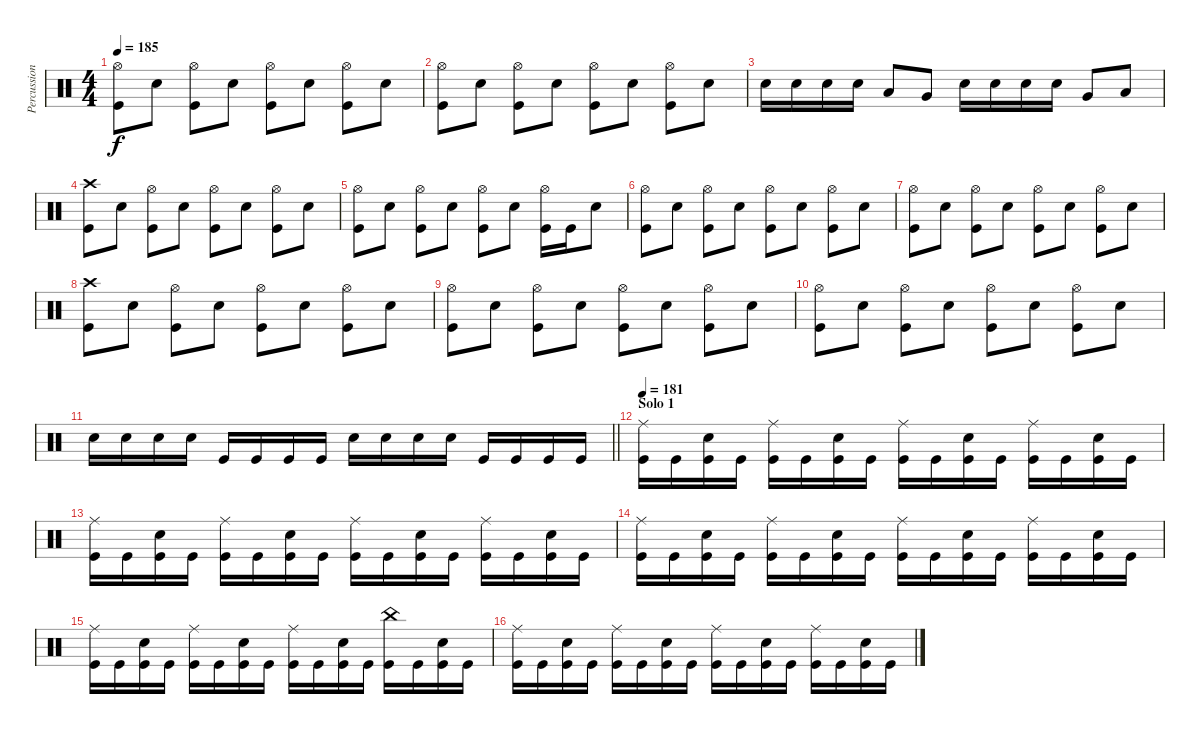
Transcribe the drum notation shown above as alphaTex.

\track ("Percussion" "Percussion") {instrument percussion}
\staff {score}
\articulation defaults
\ts (4 4)
\tempo 185
\clef neutral
\ks c
("Hi-Hat (open)" "Kick (hit)").8{dy f} "Snare (hit) 2".8 ("Hi-Hat (open)" "Kick (hit)").8 "Snare (hit) 2".8 ("Hi-Hat (open)" "Kick (hit)").8 "Snare (hit) 2".8 ("Hi-Hat (open)" "Kick (hit)").8 "Snare (hit) 2".8 |
("Hi-Hat (open)" "Kick (hit)").8 "Snare (hit) 2".8 ("Hi-Hat (open)" "Kick (hit)").8 "Snare (hit) 2".8 ("Hi-Hat (open)" "Kick (hit)").8 "Snare (hit) 2".8 ("Hi-Hat (open)" "Kick (hit)").8 "Snare (hit) 2".8 |
"Snare (hit) 2".16 "Snare (hit) 2".16 "Snare (hit) 2".16 "Snare (hit) 2".16 "Low Tom (hit)".8 "Very Low Tom (hit)".8 "Snare (hit) 2".16 "Snare (hit) 2".16 "Snare (hit) 2".16 "Snare (hit) 2".16 "Very Low Tom (hit)".8 "Low Floor Tom (hit)".8 |
("Crash high (hit)" "Kick (hit)").8 "Snare (hit) 2".8 ("Hi-Hat (open)" "Kick (hit)").8 "Snare (hit) 2".8 ("Hi-Hat (open)" "Kick (hit)").8 "Snare (hit) 2".8 ("Hi-Hat (open)" "Kick (hit)").8 "Snare (hit) 2".8 |
("Kick (hit)" "Hi-Hat (open)").8 "Snare (hit) 2".8 ("Kick (hit)" "Hi-Hat (open)").8 "Snare (hit) 2".8 ("Hi-Hat (open)" "Kick (hit)").8 "Snare (hit) 2".8 ("Hi-Hat (open)" "Kick (hit)").16 "Kick (hit)".16 "Snare (hit) 2".8 |
("Hi-Hat (open)" "Kick (hit)").8 "Snare (hit) 2".8 ("Hi-Hat (open)" "Kick (hit)").8 "Snare (hit) 2".8 ("Hi-Hat (open)" "Kick (hit)").8 "Snare (hit) 2".8 ("Hi-Hat (open)" "Kick (hit)").8 "Snare (hit) 2".8 |
("Hi-Hat (open)" "Kick (hit)").8 "Snare (hit) 2".8 ("Hi-Hat (open)" "Kick (hit)").8 "Snare (hit) 2".8 ("Hi-Hat (open)" "Kick (hit)").8 "Snare (hit) 2".8 ("Hi-Hat (open)" "Kick (hit)").8 "Snare (hit) 2".8 |
("Crash high (hit)" "Kick (hit)").8 "Snare (hit) 2".8 ("Hi-Hat (open)" "Kick (hit)").8 "Snare (hit) 2".8 ("Hi-Hat (open)" "Kick (hit)").8 "Snare (hit) 2".8 ("Hi-Hat (open)" "Kick (hit)").8 "Snare (hit) 2".8 |
("Hi-Hat (open)" "Kick (hit)").8 "Snare (hit) 2".8 ("Hi-Hat (open)" "Kick (hit)").8 "Snare (hit) 2".8 ("Hi-Hat (open)" "Kick (hit)").8 "Snare (hit) 2".8 ("Hi-Hat (open)" "Kick (hit)").8 "Snare (hit) 2".8 |
("Hi-Hat (open)" "Kick (hit)").8 "Snare (hit) 2".8 ("Hi-Hat (open)" "Kick (hit)").8 "Snare (hit) 2".8 ("Hi-Hat (open)" "Kick (hit)").8 "Snare (hit) 2".8 ("Hi-Hat (open)" "Kick (hit)").8 "Snare (hit) 2".8 |
\barLineRight lightlight "Snare (hit) 2".16 "Snare (hit) 2".16 "Snare (hit) 2".16 "Snare (hit) 2".16 "Kick (hit)".16 "Kick (hit)".16 "Kick (hit)".16 "Kick (hit)".16 "Snare (hit) 2".16 "Snare (hit) 2".16 "Snare (hit) 2".16 "Snare (hit) 2".16 "Kick (hit)".16 "Kick (hit)".16 "Kick (hit)".16 "Kick (hit)".16
|
\section ("" "Solo 1")
\tempo 181
("Ride (middle)" "Kick (hit)").16 "Kick (hit)".16 ("Snare (hit) 2" "Kick (hit)").16 "Kick (hit)".16 ("Ride (middle)" "Kick (hit)").16 "Kick (hit)".16 ("Snare (hit) 2" "Kick (hit)").16 "Kick (hit)".16 ("Ride (middle)" "Kick (hit)").16 "Kick (hit)".16 ("Snare (hit) 2" "Kick (hit)").16 "Kick (hit)".16 ("Ride (middle)" "Kick (hit)").16 "Kick (hit)".16 ("Snare (hit) 2" "Kick (hit)").16 "Kick (hit)".16 |
("Ride (middle)" "Kick (hit)").16 "Kick (hit)".16 ("Snare (hit) 2" "Kick (hit)").16 "Kick (hit)".16 ("Ride (middle)" "Kick (hit)").16 "Kick (hit)".16 ("Snare (hit) 2" "Kick (hit)").16 "Kick (hit)".16 ("Ride (middle)" "Kick (hit)").16 "Kick (hit)".16 ("Snare (hit) 2" "Kick (hit)").16 "Kick (hit)".16 ("Ride (middle)" "Kick (hit)").16 "Kick (hit)".16 ("Snare (hit) 2" "Kick (hit)").16 "Kick (hit)".16 |
("Ride (middle)" "Kick (hit)").16 "Kick (hit)".16 ("Snare (hit) 2" "Kick (hit)").16 "Kick (hit)".16 ("Ride (middle)" "Kick (hit)").16 "Kick (hit)".16 ("Snare (hit) 2" "Kick (hit)").16 "Kick (hit)".16 ("Ride (middle)" "Kick (hit)").16 "Kick (hit)".16 ("Snare (hit) 2" "Kick (hit)").16 "Kick (hit)".16 ("Ride (middle)" "Kick (hit)").16 "Kick (hit)".16 ("Snare (hit) 2" "Kick (hit)").16 "Kick (hit)".16 |
("Ride (middle)" "Kick (hit)").16 "Kick (hit)".16 ("Snare (hit) 2" "Kick (hit)").16 "Kick (hit)".16 ("Ride (middle)" "Kick (hit)").16 "Kick (hit)".16 ("Snare (hit) 2" "Kick (hit)").16 "Kick (hit)".16 ("Ride (middle)" "Kick (hit)").16 "Kick (hit)".16 ("Snare (hit) 2" "Kick (hit)").16 "Kick (hit)".16 ("China (hit)" "Kick (hit)").16 "Kick (hit)".16 ("Snare (hit) 2" "Kick (hit)").16 "Kick (hit)".16 |
("Ride (middle)" "Kick (hit)").16 "Kick (hit)".16 ("Snare (hit) 2" "Kick (hit)").16 "Kick (hit)".16 ("Ride (middle)" "Kick (hit)").16 "Kick (hit)".16 ("Snare (hit) 2" "Kick (hit)").16 "Kick (hit)".16 ("Ride (middle)" "Kick (hit)").16 "Kick (hit)".16 ("Snare (hit) 2" "Kick (hit)").16 "Kick (hit)".16 ("Ride (middle)" "Kick (hit)").16 "Kick (hit)".16 ("Snare (hit) 2" "Kick (hit)").16 "Kick (hit)".16
